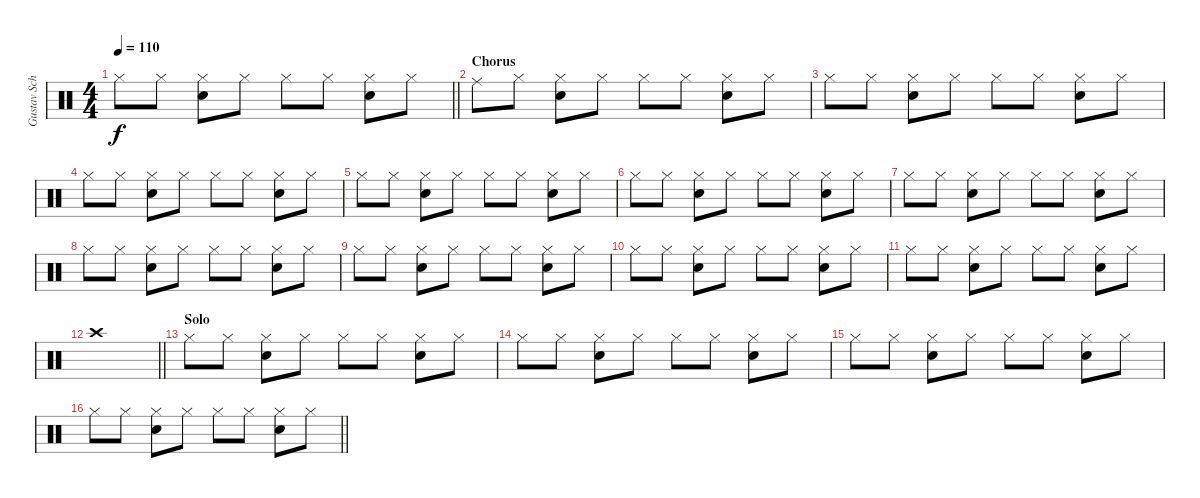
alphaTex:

\track ("Gustav Schafer" "Gustav Sch") {instrument percussion}
\staff {score}
\articulation defaults
\ts (4 4)
\tempo 110
\clef neutral
\barLineRight lightlight
\ks c "Hi-Hat (closed)".8{dy f} "Hi-Hat (closed)".8
("Hi-Hat (closed)" "Snare (hit) 2").8 "Hi-Hat (closed)".8 "Hi-Hat (closed)".8 "Hi-Hat (closed)".8 ("Hi-Hat (closed)" "Snare (hit) 2").8 "Hi-Hat (closed)".8 |
\section ("" "Chorus")
"Ride (middle)".8 "Hi-Hat (closed)".8 ("Hi-Hat (closed)" "Snare (hit) 2").8 "Hi-Hat (closed)".8 "Hi-Hat (closed)".8 "Hi-Hat (closed)".8 ("Hi-Hat (closed)" "Snare (hit) 2").8 "Hi-Hat (closed)".8 |
"Hi-Hat (closed)".8 "Hi-Hat (closed)".8 ("Hi-Hat (closed)" "Snare (hit) 2").8 "Hi-Hat (closed)".8 "Hi-Hat (closed)".8 "Hi-Hat (closed)".8 ("Hi-Hat (closed)" "Snare (hit) 2").8 "Hi-Hat (closed)".8 |
"Hi-Hat (closed)".8 "Hi-Hat (closed)".8 ("Hi-Hat (closed)" "Snare (hit) 2").8 "Hi-Hat (closed)".8 "Hi-Hat (closed)".8 "Hi-Hat (closed)".8 ("Hi-Hat (closed)" "Snare (hit) 2").8 "Hi-Hat (closed)".8 |
"Hi-Hat (closed)".8 "Hi-Hat (closed)".8 ("Hi-Hat (closed)" "Snare (hit) 2").8 "Hi-Hat (closed)".8 "Hi-Hat (closed)".8 "Hi-Hat (closed)".8 ("Hi-Hat (closed)" "Snare (hit) 2").8 "Hi-Hat (closed)".8 |
"Hi-Hat (closed)".8 "Hi-Hat (closed)".8 ("Hi-Hat (closed)" "Snare (hit) 2").8 "Hi-Hat (closed)".8 "Hi-Hat (closed)".8 "Hi-Hat (closed)".8 ("Hi-Hat (closed)" "Snare (hit) 2").8 "Hi-Hat (closed)".8 |
"Hi-Hat (closed)".8 "Hi-Hat (closed)".8 ("Hi-Hat (closed)" "Snare (hit) 2").8 "Hi-Hat (closed)".8 "Hi-Hat (closed)".8 "Hi-Hat (closed)".8 ("Hi-Hat (closed)" "Snare (hit) 2").8 "Hi-Hat (closed)".8 |
"Hi-Hat (closed)".8 "Hi-Hat (closed)".8 ("Hi-Hat (closed)" "Snare (hit) 2").8 "Hi-Hat (closed)".8 "Hi-Hat (closed)".8 "Hi-Hat (closed)".8 ("Hi-Hat (closed)" "Snare (hit) 2").8 "Hi-Hat (closed)".8 |
"Hi-Hat (closed)".8 "Hi-Hat (closed)".8 ("Hi-Hat (closed)" "Snare (hit) 2").8 "Hi-Hat (closed)".8 "Hi-Hat (closed)".8 "Hi-Hat (closed)".8 ("Hi-Hat (closed)" "Snare (hit) 2").8 "Hi-Hat (closed)".8 |
"Hi-Hat (closed)".8 "Hi-Hat (closed)".8 ("Hi-Hat (closed)" "Snare (hit) 2").8 "Hi-Hat (closed)".8 "Hi-Hat (closed)".8 "Hi-Hat (closed)".8 ("Hi-Hat (closed)" "Snare (hit) 2").8 "Hi-Hat (closed)".8 |
"Hi-Hat (closed)".8 "Hi-Hat (closed)".8 ("Hi-Hat (closed)" "Snare (hit) 2").8 "Hi-Hat (closed)".8 "Hi-Hat (closed)".8 "Hi-Hat (closed)".8 ("Hi-Hat (closed)" "Snare (hit) 2").8 "Hi-Hat (closed)".8 |
\barLineRight lightlight "Crash high (hit)".1
|
\section ("" "Solo")
"Hi-Hat (closed)".8 "Hi-Hat (closed)".8 ("Hi-Hat (closed)" "Snare (hit) 2").8 "Hi-Hat (closed)".8 "Hi-Hat (closed)".8 "Hi-Hat (closed)".8 ("Hi-Hat (closed)" "Snare (hit) 2").8 "Hi-Hat (closed)".8 |
"Hi-Hat (closed)".8 "Hi-Hat (closed)".8 ("Hi-Hat (closed)" "Snare (hit) 2").8 "Hi-Hat (closed)".8 "Hi-Hat (closed)".8 "Hi-Hat (closed)".8 ("Hi-Hat (closed)" "Snare (hit) 2").8 "Hi-Hat (closed)".8 |
"Hi-Hat (closed)".8 "Hi-Hat (closed)".8 ("Hi-Hat (closed)" "Snare (hit) 2").8 "Hi-Hat (closed)".8 "Hi-Hat (closed)".8 "Hi-Hat (closed)".8 ("Hi-Hat (closed)" "Snare (hit) 2").8 "Hi-Hat (closed)".8 |
\barLineRight lightlight "Hi-Hat (closed)".8 "Hi-Hat (closed)".8
("Hi-Hat (closed)" "Snare (hit) 2").8 "Hi-Hat (closed)".8 "Hi-Hat (closed)".8 "Hi-Hat (closed)".8 ("Hi-Hat (closed)" "Snare (hit) 2").8 "Hi-Hat (closed)".8
